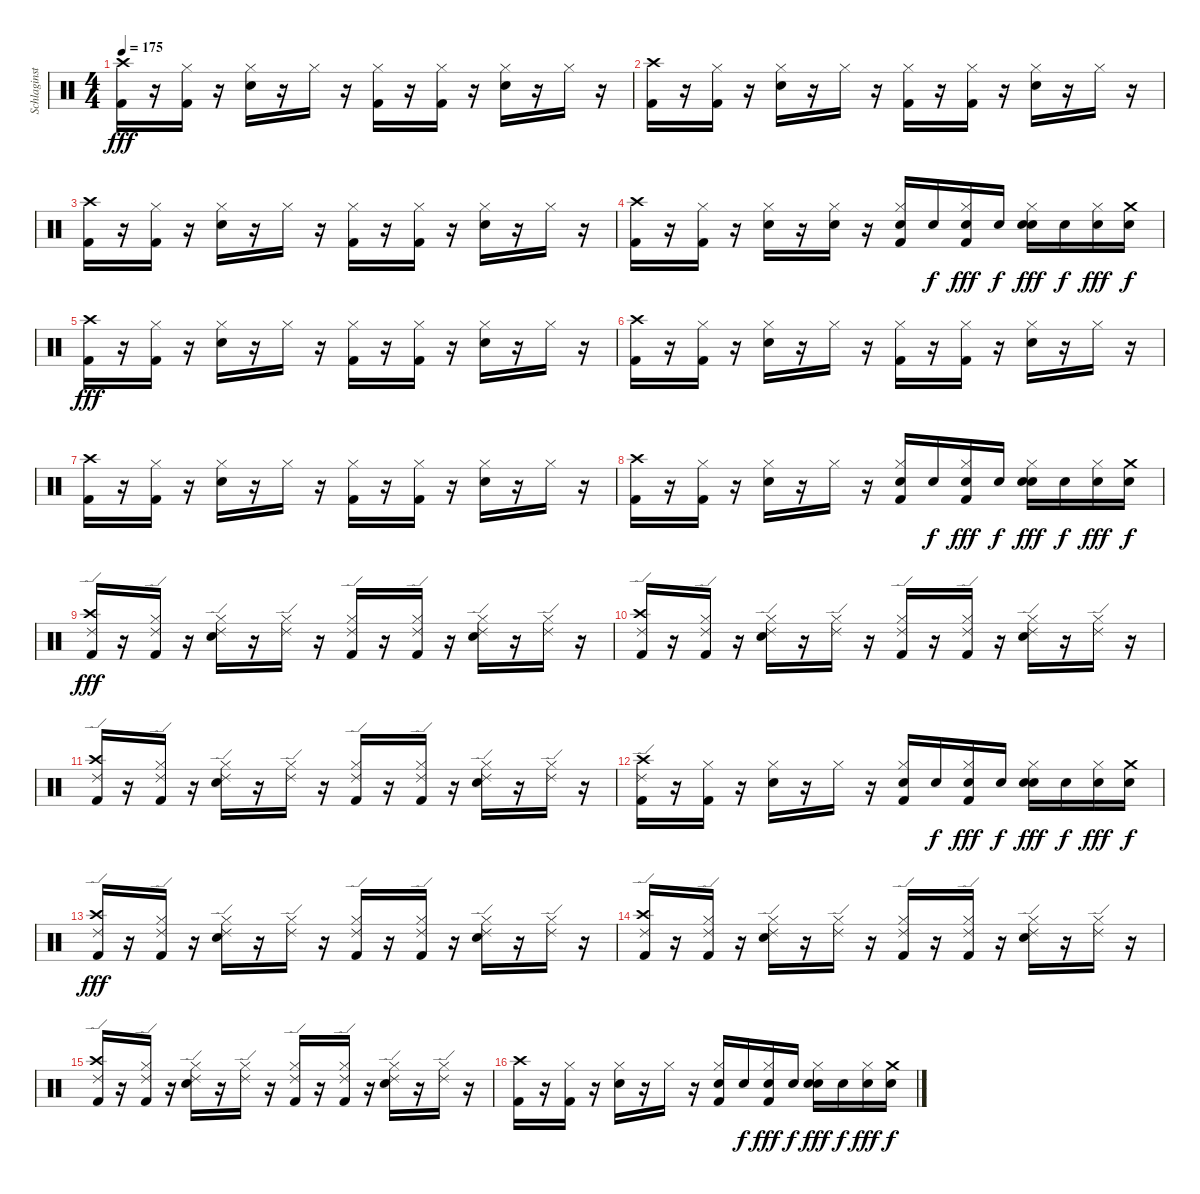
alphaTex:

\track ("Schlaginstrumente - Auswahl" "Schlaginst") {instrument percussion}
\staff {score}
\articulation defaults
\ts (4 4)
\tempo 175
\clef neutral
\ks c
("Kick (hit) 2" "Crash high (hit)").16{dy fff} r.16 ("Hi-Hat (closed)" "Kick (hit) 2").16 r.16 ("Snare (hit) 2" "Hi-Hat (closed)").16 r.16 "Hi-Hat (closed)".16 r.16 ("Kick (hit) 2" "Hi-Hat (closed)").16 r.16 ("Kick (hit) 2" "Hi-Hat (closed)").16 r.16 ("Snare (hit) 2" "Hi-Hat (closed)").16 r.16 "Hi-Hat (closed)".16 r.16 |
("Kick (hit) 2" "Crash high (hit)").16 r.16 ("Hi-Hat (closed)" "Kick (hit) 2").16 r.16 ("Snare (hit) 2" "Hi-Hat (closed)").16 r.16 "Hi-Hat (closed)".16 r.16 ("Kick (hit) 2" "Hi-Hat (closed)").16 r.16 ("Kick (hit) 2" "Hi-Hat (closed)").16 r.16 ("Snare (hit) 2" "Hi-Hat (closed)").16 r.16 "Hi-Hat (closed)".16 r.16 |
("Kick (hit) 2" "Crash high (hit)").16 r.16 ("Hi-Hat (closed)" "Kick (hit) 2").16 r.16 ("Snare (hit) 2" "Hi-Hat (closed)").16 r.16 "Hi-Hat (closed)".16 r.16 ("Kick (hit) 2" "Hi-Hat (closed)").16 r.16 ("Kick (hit) 2" "Hi-Hat (closed)").16 r.16 ("Snare (hit) 2" "Hi-Hat (closed)").16 r.16 "Hi-Hat (closed)".16 r.16 |
("Kick (hit) 2" "Crash high (hit)").16 r.16 ("Hi-Hat (closed)" "Kick (hit) 2").16 r.16 ("Snare (hit) 2" "Hi-Hat (closed)").16 r.16 ("Hi-Hat (closed)" "Snare (hit) 2").16 r.16 ("Kick (hit) 2" "Hi-Hat (closed)" "Snare (hit) 2").16 "Snare (hit) 2".16{dy f} ("Kick (hit) 2" "Hi-Hat (closed)" "Snare (hit) 2").16{dy fff} "Snare (hit) 2".16{dy f} ("Snare (hit) 2" "Hi-Hat (closed)" "Snare (hit) 2").16{dy fff} "Snare (hit) 2".16{dy f} ("Hi-Hat (closed)" "Snare (hit) 2").16{dy fff} ("Crash medium (hit)" "Snare (hit) 2").16{dy f} |
("Kick (hit) 2" "Crash high (hit)").16{dy fff} r.16 ("Hi-Hat (closed)" "Kick (hit) 2").16 r.16 ("Snare (hit) 2" "Hi-Hat (closed)").16 r.16 "Hi-Hat (closed)".16 r.16 ("Kick (hit) 2" "Hi-Hat (closed)").16 r.16 ("Kick (hit) 2" "Hi-Hat (closed)").16 r.16 ("Snare (hit) 2" "Hi-Hat (closed)").16 r.16 "Hi-Hat (closed)".16 r.16 |
("Kick (hit) 2" "Crash high (hit)").16 r.16 ("Hi-Hat (closed)" "Kick (hit) 2").16 r.16 ("Snare (hit) 2" "Hi-Hat (closed)").16 r.16 "Hi-Hat (closed)".16 r.16 ("Kick (hit) 2" "Hi-Hat (closed)").16 r.16 ("Kick (hit) 2" "Hi-Hat (closed)").16 r.16 ("Snare (hit) 2" "Hi-Hat (closed)").16 r.16 "Hi-Hat (closed)".16 r.16 |
("Kick (hit) 2" "Crash high (hit)").16 r.16 ("Hi-Hat (closed)" "Kick (hit) 2").16 r.16 ("Snare (hit) 2" "Hi-Hat (closed)").16 r.16 "Hi-Hat (closed)".16 r.16 ("Kick (hit) 2" "Hi-Hat (closed)").16 r.16 ("Kick (hit) 2" "Hi-Hat (closed)").16 r.16 ("Snare (hit) 2" "Hi-Hat (closed)").16 r.16 "Hi-Hat (closed)".16 r.16 |
("Kick (hit) 2" "Crash high (hit)").16 r.16 ("Hi-Hat (closed)" "Kick (hit) 2").16 r.16 ("Snare (hit) 2" "Hi-Hat (closed)").16 r.16 "Hi-Hat (closed)".16 r.16 ("Kick (hit) 2" "Hi-Hat (closed)" "Snare (hit) 2").16 "Snare (hit) 2".16{dy f} ("Kick (hit) 2" "Hi-Hat (closed)" "Snare (hit) 2").16{dy fff} "Snare (hit) 2".16{dy f} ("Snare (hit) 2" "Hi-Hat (closed)" "Snare (hit) 2").16{dy fff} "Snare (hit) 2".16{dy f} ("Hi-Hat (closed)" "Snare (hit) 2").16{dy fff} ("Crash medium (hit)" "Snare (hit) 2").16{dy f} |
("Kick (hit) 2" "Crash high (hit)" "Ride (edge) 2").16{dy fff} r.16 ("Hi-Hat (closed)" "Kick (hit) 2" "Ride (edge) 2").16 r.16 ("Snare (hit) 2" "Hi-Hat (closed)" "Ride (edge) 2").16 r.16 ("Hi-Hat (closed)" "Ride (edge) 2").16 r.16 ("Kick (hit) 2" "Hi-Hat (closed)" "Ride (edge) 2").16 r.16 ("Kick (hit) 2" "Hi-Hat (closed)" "Ride (edge) 2").16 r.16 ("Snare (hit) 2" "Hi-Hat (closed)" "Ride (edge) 2").16 r.16 ("Hi-Hat (closed)" "Ride (edge) 2").16 r.16 |
("Kick (hit) 2" "Crash high (hit)" "Ride (edge) 2").16 r.16 ("Hi-Hat (closed)" "Kick (hit) 2" "Ride (edge) 2").16 r.16 ("Snare (hit) 2" "Hi-Hat (closed)" "Ride (edge) 2").16 r.16 ("Hi-Hat (closed)" "Ride (edge) 2").16 r.16 ("Kick (hit) 2" "Hi-Hat (closed)" "Ride (edge) 2").16 r.16 ("Kick (hit) 2" "Hi-Hat (closed)" "Ride (edge) 2").16 r.16 ("Snare (hit) 2" "Hi-Hat (closed)" "Ride (edge) 2").16 r.16 ("Hi-Hat (closed)" "Ride (edge) 2").16 r.16 |
("Kick (hit) 2" "Crash high (hit)" "Ride (edge) 2").16 r.16 ("Hi-Hat (closed)" "Kick (hit) 2" "Ride (edge) 2").16 r.16 ("Snare (hit) 2" "Hi-Hat (closed)" "Ride (edge) 2").16 r.16 ("Hi-Hat (closed)" "Ride (edge) 2").16 r.16 ("Kick (hit) 2" "Hi-Hat (closed)" "Ride (edge) 2").16 r.16 ("Kick (hit) 2" "Hi-Hat (closed)" "Ride (edge) 2").16 r.16 ("Snare (hit) 2" "Hi-Hat (closed)" "Ride (edge) 2").16 r.16 ("Hi-Hat (closed)" "Ride (edge) 2").16 r.16 |
("Kick (hit) 2" "Crash high (hit)" "Ride (edge) 2").16 r.16 ("Hi-Hat (closed)" "Kick (hit) 2").16 r.16 ("Snare (hit) 2" "Hi-Hat (closed)").16 r.16 "Hi-Hat (closed)".16 r.16 ("Kick (hit) 2" "Hi-Hat (closed)" "Snare (hit) 2").16 "Snare (hit) 2".16{dy f} ("Kick (hit) 2" "Hi-Hat (closed)" "Snare (hit) 2").16{dy fff} "Snare (hit) 2".16{dy f} ("Snare (hit) 2" "Hi-Hat (closed)" "Snare (hit) 2").16{dy fff} "Snare (hit) 2".16{dy f} ("Hi-Hat (closed)" "Snare (hit) 2").16{dy fff} ("Crash medium (hit)" "Snare (hit) 2").16{dy f} |
("Kick (hit) 2" "Crash high (hit)" "Ride (edge) 2").16{dy fff} r.16 ("Hi-Hat (closed)" "Kick (hit) 2" "Ride (edge) 2").16 r.16 ("Snare (hit) 2" "Hi-Hat (closed)" "Ride (edge) 2").16 r.16 ("Hi-Hat (closed)" "Ride (edge) 2").16 r.16 ("Kick (hit) 2" "Hi-Hat (closed)" "Ride (edge) 2").16 r.16 ("Kick (hit) 2" "Hi-Hat (closed)" "Ride (edge) 2").16 r.16 ("Snare (hit) 2" "Hi-Hat (closed)" "Ride (edge) 2").16 r.16 ("Hi-Hat (closed)" "Ride (edge) 2").16 r.16 |
("Kick (hit) 2" "Crash high (hit)" "Ride (edge) 2").16 r.16 ("Hi-Hat (closed)" "Kick (hit) 2" "Ride (edge) 2").16 r.16 ("Snare (hit) 2" "Hi-Hat (closed)" "Ride (edge) 2").16 r.16 ("Hi-Hat (closed)" "Ride (edge) 2").16 r.16 ("Kick (hit) 2" "Hi-Hat (closed)" "Ride (edge) 2").16 r.16 ("Kick (hit) 2" "Hi-Hat (closed)" "Ride (edge) 2").16 r.16 ("Snare (hit) 2" "Hi-Hat (closed)" "Ride (edge) 2").16 r.16 ("Hi-Hat (closed)" "Ride (edge) 2").16 r.16 |
("Kick (hit) 2" "Crash high (hit)" "Ride (edge) 2").16 r.16 ("Hi-Hat (closed)" "Kick (hit) 2" "Ride (edge) 2").16 r.16 ("Snare (hit) 2" "Hi-Hat (closed)" "Ride (edge) 2").16 r.16 ("Hi-Hat (closed)" "Ride (edge) 2").16 r.16 ("Kick (hit) 2" "Hi-Hat (closed)" "Ride (edge) 2").16 r.16 ("Kick (hit) 2" "Hi-Hat (closed)" "Ride (edge) 2").16 r.16 ("Snare (hit) 2" "Hi-Hat (closed)" "Ride (edge) 2").16 r.16 ("Hi-Hat (closed)" "Ride (edge) 2").16 r.16 |
("Kick (hit) 2" "Crash high (hit)").16 r.16 ("Hi-Hat (closed)" "Kick (hit) 2").16 r.16 ("Snare (hit) 2" "Hi-Hat (closed)").16 r.16 "Hi-Hat (closed)".16 r.16 ("Kick (hit) 2" "Hi-Hat (closed)" "Snare (hit) 2").16 "Snare (hit) 2".16{dy f} ("Kick (hit) 2" "Hi-Hat (closed)" "Snare (hit) 2").16{dy fff} "Snare (hit) 2".16{dy f} ("Snare (hit) 2" "Hi-Hat (closed)" "Snare (hit) 2").16{dy fff} "Snare (hit) 2".16{dy f} ("Hi-Hat (closed)" "Snare (hit) 2").16{dy fff} ("Crash medium (hit)" "Snare (hit) 2").16{dy f}
